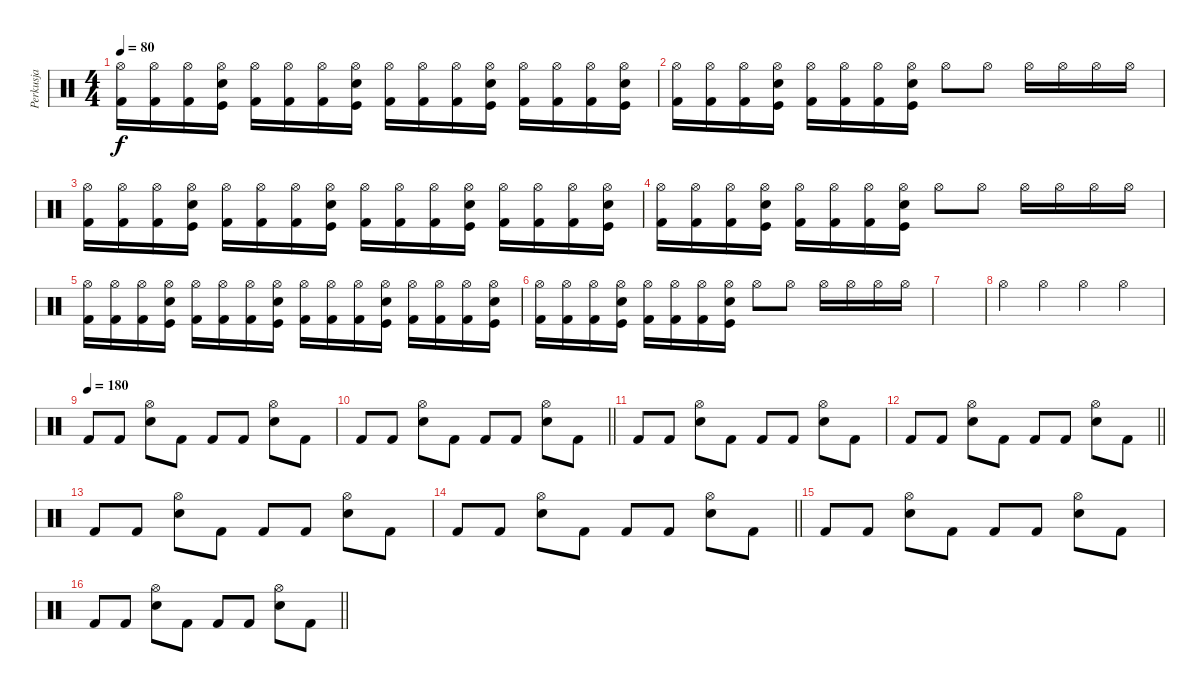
\track ("Perkusja" "Perkusja") {instrument percussion}
\staff {score}
\articulation defaults
\ts (4 4)
\tempo 80
\clef neutral
\ks c
("Kick (hit) 2" "Hi-Hat (open)").16{dy f} ("Kick (hit) 2" "Hi-Hat (open)").16 ("Kick (hit) 2" "Hi-Hat (open)").16 ("Snare (hit) 2" "Hi-Hat (open)" "Kick (hit)").16 ("Kick (hit) 2" "Hi-Hat (open)").16 ("Kick (hit) 2" "Hi-Hat (open)").16 ("Kick (hit) 2" "Hi-Hat (open)").16 ("Snare (hit) 2" "Hi-Hat (open)" "Kick (hit)").16 ("Kick (hit) 2" "Hi-Hat (open)").16 ("Kick (hit) 2" "Hi-Hat (open)").16 ("Kick (hit) 2" "Hi-Hat (open)").16 ("Snare (hit) 2" "Hi-Hat (open)" "Kick (hit)").16 ("Kick (hit) 2" "Hi-Hat (open)").16 ("Kick (hit) 2" "Hi-Hat (open)").16 ("Kick (hit) 2" "Hi-Hat (open)").16 ("Snare (hit) 2" "Hi-Hat (open)" "Kick (hit)").16 |
("Kick (hit) 2" "Hi-Hat (open)").16 ("Kick (hit) 2" "Hi-Hat (open)").16 ("Kick (hit) 2" "Hi-Hat (open)").16 ("Snare (hit) 2" "Hi-Hat (open)" "Kick (hit)").16 ("Kick (hit) 2" "Hi-Hat (open)").16 ("Kick (hit) 2" "Hi-Hat (open)").16 ("Kick (hit) 2" "Hi-Hat (open)").16 ("Snare (hit) 2" "Hi-Hat (open)" "Kick (hit)").16 "Hi-Hat (open)".8 "Hi-Hat (open)".8 "Hi-Hat (open)".16 "Hi-Hat (open)".16 "Hi-Hat (open)".16 "Hi-Hat (open)".16 |
("Kick (hit) 2" "Hi-Hat (open)").16 ("Kick (hit) 2" "Hi-Hat (open)").16 ("Kick (hit) 2" "Hi-Hat (open)").16 ("Snare (hit) 2" "Hi-Hat (open)" "Kick (hit)").16 ("Kick (hit) 2" "Hi-Hat (open)").16 ("Kick (hit) 2" "Hi-Hat (open)").16 ("Kick (hit) 2" "Hi-Hat (open)").16 ("Snare (hit) 2" "Hi-Hat (open)" "Kick (hit)").16 ("Kick (hit) 2" "Hi-Hat (open)").16 ("Kick (hit) 2" "Hi-Hat (open)").16 ("Kick (hit) 2" "Hi-Hat (open)").16 ("Snare (hit) 2" "Hi-Hat (open)" "Kick (hit)").16 ("Kick (hit) 2" "Hi-Hat (open)").16 ("Kick (hit) 2" "Hi-Hat (open)").16 ("Kick (hit) 2" "Hi-Hat (open)").16 ("Snare (hit) 2" "Hi-Hat (open)" "Kick (hit)").16 |
("Kick (hit) 2" "Hi-Hat (open)").16 ("Kick (hit) 2" "Hi-Hat (open)").16 ("Kick (hit) 2" "Hi-Hat (open)").16 ("Snare (hit) 2" "Hi-Hat (open)" "Kick (hit)").16 ("Kick (hit) 2" "Hi-Hat (open)").16 ("Kick (hit) 2" "Hi-Hat (open)").16 ("Kick (hit) 2" "Hi-Hat (open)").16 ("Snare (hit) 2" "Hi-Hat (open)" "Kick (hit)").16 "Hi-Hat (open)".8 "Hi-Hat (open)".8 "Hi-Hat (open)".16 "Hi-Hat (open)".16 "Hi-Hat (open)".16 "Hi-Hat (open)".16 |
("Kick (hit) 2" "Hi-Hat (open)").16 ("Kick (hit) 2" "Hi-Hat (open)").16 ("Kick (hit) 2" "Hi-Hat (open)").16 ("Snare (hit) 2" "Hi-Hat (open)" "Kick (hit)").16 ("Kick (hit) 2" "Hi-Hat (open)").16 ("Kick (hit) 2" "Hi-Hat (open)").16 ("Kick (hit) 2" "Hi-Hat (open)").16 ("Snare (hit) 2" "Hi-Hat (open)" "Kick (hit)").16 ("Kick (hit) 2" "Hi-Hat (open)").16 ("Kick (hit) 2" "Hi-Hat (open)").16 ("Kick (hit) 2" "Hi-Hat (open)").16 ("Snare (hit) 2" "Hi-Hat (open)" "Kick (hit)").16 ("Kick (hit) 2" "Hi-Hat (open)").16 ("Kick (hit) 2" "Hi-Hat (open)").16 ("Kick (hit) 2" "Hi-Hat (open)").16 ("Snare (hit) 2" "Hi-Hat (open)" "Kick (hit)").16 |
("Kick (hit) 2" "Hi-Hat (open)").16 ("Kick (hit) 2" "Hi-Hat (open)").16 ("Kick (hit) 2" "Hi-Hat (open)").16 ("Snare (hit) 2" "Hi-Hat (open)" "Kick (hit)").16 ("Kick (hit) 2" "Hi-Hat (open)").16 ("Kick (hit) 2" "Hi-Hat (open)").16 ("Kick (hit) 2" "Hi-Hat (open)").16 ("Snare (hit) 2" "Hi-Hat (open)" "Kick (hit)").16 "Hi-Hat (open)".8 "Hi-Hat (open)".8 "Hi-Hat (open)".16 "Hi-Hat (open)".16 "Hi-Hat (open)".16 "Hi-Hat (open)".16 |
|
"Hi-Hat (open)".4 "Hi-Hat (open)".4 "Hi-Hat (open)".4 "Hi-Hat (open)".4 |
\tempo (180)
"Kick (hit) 2".8 "Kick (hit) 2".8 ("Snare (hit) 2" "Hi-Hat (open)").8 "Kick (hit) 2".8 "Kick (hit) 2".8 "Kick (hit) 2".8 ("Snare (hit) 2" "Hi-Hat (open)").8 "Kick (hit) 2".8 |
\barLineRight lightlight "Kick (hit) 2".8 "Kick (hit) 2".8
("Snare (hit) 2" "Hi-Hat (open)").8 "Kick (hit) 2".8 "Kick (hit) 2".8 "Kick (hit) 2".8 ("Snare (hit) 2" "Hi-Hat (open)").8 "Kick (hit) 2".8 |
"Kick (hit) 2".8 "Kick (hit) 2".8 ("Snare (hit) 2" "Hi-Hat (open)").8 "Kick (hit) 2".8 "Kick (hit) 2".8 "Kick (hit) 2".8 ("Snare (hit) 2" "Hi-Hat (open)").8 "Kick (hit) 2".8 |
\barLineRight lightlight "Kick (hit) 2".8 "Kick (hit) 2".8
("Snare (hit) 2" "Hi-Hat (open)").8 "Kick (hit) 2".8 "Kick (hit) 2".8 "Kick (hit) 2".8 ("Snare (hit) 2" "Hi-Hat (open)").8 "Kick (hit) 2".8 |
"Kick (hit) 2".8 "Kick (hit) 2".8 ("Snare (hit) 2" "Hi-Hat (open)").8 "Kick (hit) 2".8 "Kick (hit) 2".8 "Kick (hit) 2".8 ("Snare (hit) 2" "Hi-Hat (open)").8 "Kick (hit) 2".8 |
\barLineRight lightlight "Kick (hit) 2".8 "Kick (hit) 2".8
("Snare (hit) 2" "Hi-Hat (open)").8 "Kick (hit) 2".8 "Kick (hit) 2".8 "Kick (hit) 2".8 ("Snare (hit) 2" "Hi-Hat (open)").8 "Kick (hit) 2".8 |
"Kick (hit) 2".8 "Kick (hit) 2".8 ("Snare (hit) 2" "Hi-Hat (open)").8 "Kick (hit) 2".8 "Kick (hit) 2".8 "Kick (hit) 2".8 ("Snare (hit) 2" "Hi-Hat (open)").8 "Kick (hit) 2".8 |
\barLineRight lightlight "Kick (hit) 2".8 "Kick (hit) 2".8
("Snare (hit) 2" "Hi-Hat (open)").8 "Kick (hit) 2".8 "Kick (hit) 2".8 "Kick (hit) 2".8 ("Snare (hit) 2" "Hi-Hat (open)").8 "Kick (hit) 2".8
